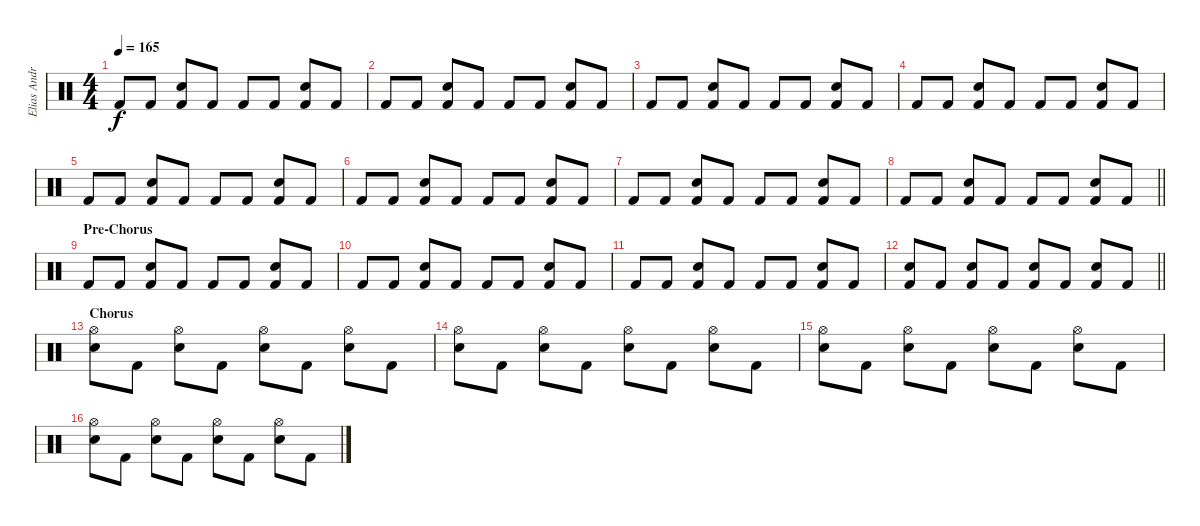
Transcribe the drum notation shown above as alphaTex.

\track ("Elias Andra-Drums" "Elias Andr") {instrument percussion}
\staff {score}
\articulation defaults
\ts (4 4)
\tempo 165
\clef neutral
\ks c "Kick (hit) 2".8{dy f} "Kick (hit) 2".8
("Kick (hit) 2" "Electric Snare (hit)").8 "Kick (hit) 2".8 "Kick (hit) 2".8 "Kick (hit) 2".8 ("Kick (hit) 2" "Electric Snare (hit)").8 "Kick (hit) 2".8 |
"Kick (hit) 2".8 "Kick (hit) 2".8 ("Kick (hit) 2" "Electric Snare (hit)").8 "Kick (hit) 2".8 "Kick (hit) 2".8 "Kick (hit) 2".8 ("Kick (hit) 2" "Electric Snare (hit)").8 "Kick (hit) 2".8 |
"Kick (hit) 2".8 "Kick (hit) 2".8 ("Kick (hit) 2" "Electric Snare (hit)").8 "Kick (hit) 2".8 "Kick (hit) 2".8 "Kick (hit) 2".8 ("Kick (hit) 2" "Electric Snare (hit)").8 "Kick (hit) 2".8 |
"Kick (hit) 2".8 "Kick (hit) 2".8 ("Kick (hit) 2" "Electric Snare (hit)").8 "Kick (hit) 2".8 "Kick (hit) 2".8 "Kick (hit) 2".8 ("Kick (hit) 2" "Electric Snare (hit)").8 "Kick (hit) 2".8 |
"Kick (hit) 2".8 "Kick (hit) 2".8 ("Kick (hit) 2" "Electric Snare (hit)").8 "Kick (hit) 2".8 "Kick (hit) 2".8 "Kick (hit) 2".8 ("Kick (hit) 2" "Electric Snare (hit)").8 "Kick (hit) 2".8 |
"Kick (hit) 2".8 "Kick (hit) 2".8 ("Kick (hit) 2" "Electric Snare (hit)").8 "Kick (hit) 2".8 "Kick (hit) 2".8 "Kick (hit) 2".8 ("Kick (hit) 2" "Electric Snare (hit)").8 "Kick (hit) 2".8 |
"Kick (hit) 2".8 "Kick (hit) 2".8 ("Kick (hit) 2" "Electric Snare (hit)").8 "Kick (hit) 2".8 "Kick (hit) 2".8 "Kick (hit) 2".8 ("Kick (hit) 2" "Electric Snare (hit)").8 "Kick (hit) 2".8 |
\barLineRight lightlight "Kick (hit) 2".8 "Kick (hit) 2".8
("Kick (hit) 2" "Electric Snare (hit)").8 "Kick (hit) 2".8 "Kick (hit) 2".8 "Kick (hit) 2".8 ("Kick (hit) 2" "Electric Snare (hit)").8 "Kick (hit) 2".8 |
\section ("" "Pre-Chorus")
"Kick (hit) 2".8 "Kick (hit) 2".8 ("Kick (hit) 2" "Electric Snare (hit)").8 "Kick (hit) 2".8 "Kick (hit) 2".8 "Kick (hit) 2".8 ("Kick (hit) 2" "Electric Snare (hit)").8 "Kick (hit) 2".8 |
"Kick (hit) 2".8 "Kick (hit) 2".8 ("Kick (hit) 2" "Electric Snare (hit)").8 "Kick (hit) 2".8 "Kick (hit) 2".8 "Kick (hit) 2".8 ("Kick (hit) 2" "Electric Snare (hit)").8 "Kick (hit) 2".8 |
"Kick (hit) 2".8 "Kick (hit) 2".8 ("Kick (hit) 2" "Electric Snare (hit)").8 "Kick (hit) 2".8 "Kick (hit) 2".8 "Kick (hit) 2".8 ("Kick (hit) 2" "Electric Snare (hit)").8 "Kick (hit) 2".8 |
\barLineRight lightlight
("Kick (hit) 2" "Electric Snare (hit)").8 "Kick (hit) 2".8 ("Kick (hit) 2" "Electric Snare (hit)").8 "Kick (hit) 2".8 ("Kick (hit) 2" "Electric Snare (hit)").8 "Kick (hit) 2".8 ("Kick (hit) 2" "Electric Snare (hit)").8 "Kick (hit) 2".8 |
\section ("" "Chorus")
("Electric Snare (hit)" "Hi-Hat (open)").8 "Kick (hit) 2".8 ("Electric Snare (hit)" "Hi-Hat (open)").8 "Kick (hit) 2".8 ("Electric Snare (hit)" "Hi-Hat (open)").8 "Kick (hit) 2".8 ("Electric Snare (hit)" "Hi-Hat (open)").8 "Kick (hit) 2".8 |
("Electric Snare (hit)" "Hi-Hat (open)").8 "Kick (hit) 2".8 ("Electric Snare (hit)" "Hi-Hat (open)").8 "Kick (hit) 2".8 ("Electric Snare (hit)" "Hi-Hat (open)").8 "Kick (hit) 2".8 ("Electric Snare (hit)" "Hi-Hat (open)").8 "Kick (hit) 2".8 |
("Electric Snare (hit)" "Hi-Hat (open)").8 "Kick (hit) 2".8 ("Electric Snare (hit)" "Hi-Hat (open)").8 "Kick (hit) 2".8 ("Electric Snare (hit)" "Hi-Hat (open)").8 "Kick (hit) 2".8 ("Electric Snare (hit)" "Hi-Hat (open)").8 "Kick (hit) 2".8 |
("Electric Snare (hit)" "Hi-Hat (open)").8 "Kick (hit) 2".8 ("Electric Snare (hit)" "Hi-Hat (open)").8 "Kick (hit) 2".8 ("Electric Snare (hit)" "Hi-Hat (open)").8 "Kick (hit) 2".8 ("Electric Snare (hit)" "Hi-Hat (open)").8 "Kick (hit) 2".8
